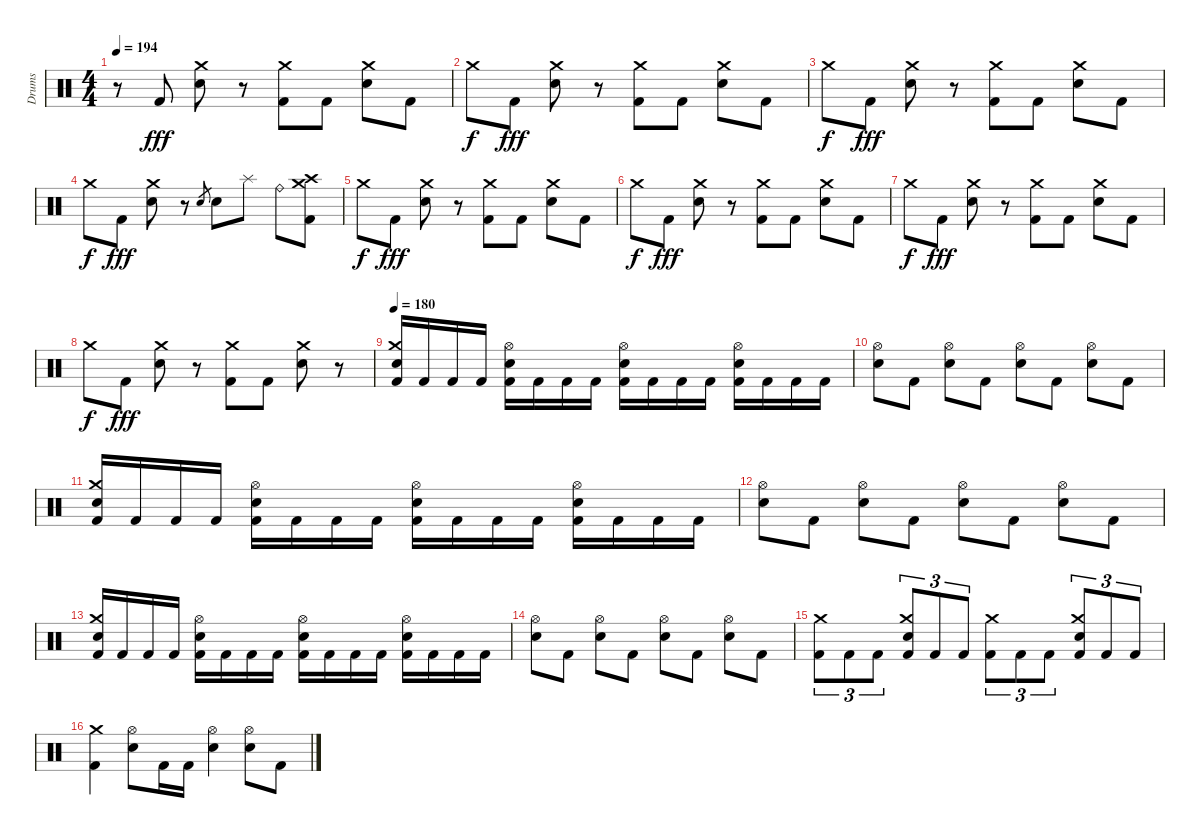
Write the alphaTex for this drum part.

\track ("Drums" "Drums") {instrument percussion}
\staff {score}
\articulation defaults
\ts (4 4)
\tempo 194
\clef neutral
\ks c
r.8{dy fff} "Kick (hit) 2".8 ("Crash medium (hit)" "Electric Snare (hit)").8 r.8 ("Crash medium (hit)" "Kick (hit) 2").8 "Kick (hit) 2".8 ("Crash medium (hit)" "Electric Snare (hit)").8 "Kick (hit) 2".8 |
"Crash medium (hit)".8{dy f} "Kick (hit) 2".8{dy fff} ("Crash medium (hit)" "Electric Snare (hit)").8 r.8 ("Crash medium (hit)" "Kick (hit) 2").8 "Kick (hit) 2".8 ("Crash medium (hit)" "Electric Snare (hit)").8 "Kick (hit) 2".8 |
"Crash medium (hit)".8{dy f} "Kick (hit) 2".8{dy fff} ("Crash medium (hit)" "Electric Snare (hit)").8 r.8 ("Crash medium (hit)" "Kick (hit) 2").8 "Kick (hit) 2".8 ("Crash medium (hit)" "Electric Snare (hit)").8 "Kick (hit) 2".8 |
"Crash medium (hit)".8{dy f} "Kick (hit) 2".8{dy fff} ("Crash medium (hit)" "Electric Snare (hit)").8 r.8 "Electric Snare (hit)".8{gr} "Electric Snare (hit)".8 "Splash (hit)".8 "Ride (bell)".8 ("Crash medium (hit)" "Crash high (hit)" "Kick (hit) 2").8 |
"Crash medium (hit)".8{dy f} "Kick (hit) 2".8{dy fff} ("Crash medium (hit)" "Electric Snare (hit)").8 r.8 ("Crash medium (hit)" "Kick (hit) 2").8 "Kick (hit) 2".8 ("Crash medium (hit)" "Electric Snare (hit)").8 "Kick (hit) 2".8 |
"Crash medium (hit)".8{dy f} "Kick (hit) 2".8{dy fff} ("Crash medium (hit)" "Electric Snare (hit)").8 r.8 ("Crash medium (hit)" "Kick (hit) 2").8 "Kick (hit) 2".8 ("Crash medium (hit)" "Electric Snare (hit)").8 "Kick (hit) 2".8 |
"Crash medium (hit)".8{dy f} "Kick (hit) 2".8{dy fff} ("Crash medium (hit)" "Electric Snare (hit)").8 r.8 ("Crash medium (hit)" "Kick (hit) 2").8 "Kick (hit) 2".8 ("Crash medium (hit)" "Electric Snare (hit)").8 "Kick (hit) 2".8 |
"Crash medium (hit)".8{dy f} "Kick (hit) 2".8{dy fff} ("Crash medium (hit)" "Electric Snare (hit)").8 r.8 ("Crash medium (hit)" "Kick (hit) 2").8 "Kick (hit) 2".8 ("Crash medium (hit)" "Electric Snare (hit)").8 r.8 |
\tempo 180
("Crash medium (hit)" "Electric Snare (hit)" "Kick (hit) 2").16 "Kick (hit) 2".16 "Kick (hit) 2".16 "Kick (hit) 2".16 ("Hi-Hat (open)" "Electric Snare (hit)" "Kick (hit) 2").16 "Kick (hit) 2".16 "Kick (hit) 2".16 "Kick (hit) 2".16 ("Hi-Hat (open)" "Electric Snare (hit)" "Kick (hit) 2").16 "Kick (hit) 2".16 "Kick (hit) 2".16 "Kick (hit) 2".16 ("Hi-Hat (open)" "Electric Snare (hit)" "Kick (hit) 2").16 "Kick (hit) 2".16 "Kick (hit) 2".16 "Kick (hit) 2".16 |
("Hi-Hat (open)" "Electric Snare (hit)").8 "Kick (hit) 2".8 ("Hi-Hat (open)" "Electric Snare (hit)").8 "Kick (hit) 2".8 ("Hi-Hat (open)" "Electric Snare (hit)").8 "Kick (hit) 2".8 ("Hi-Hat (open)" "Electric Snare (hit)").8 "Kick (hit) 2".8 |
("Crash medium (hit)" "Electric Snare (hit)" "Kick (hit) 2").16 "Kick (hit) 2".16 "Kick (hit) 2".16 "Kick (hit) 2".16 ("Hi-Hat (open)" "Electric Snare (hit)" "Kick (hit) 2").16 "Kick (hit) 2".16 "Kick (hit) 2".16 "Kick (hit) 2".16 ("Hi-Hat (open)" "Electric Snare (hit)" "Kick (hit) 2").16 "Kick (hit) 2".16 "Kick (hit) 2".16 "Kick (hit) 2".16 ("Hi-Hat (open)" "Electric Snare (hit)" "Kick (hit) 2").16 "Kick (hit) 2".16 "Kick (hit) 2".16 "Kick (hit) 2".16 |
("Hi-Hat (open)" "Electric Snare (hit)").8 "Kick (hit) 2".8 ("Hi-Hat (open)" "Electric Snare (hit)").8 "Kick (hit) 2".8 ("Hi-Hat (open)" "Electric Snare (hit)").8 "Kick (hit) 2".8 ("Hi-Hat (open)" "Electric Snare (hit)").8 "Kick (hit) 2".8 |
("Crash medium (hit)" "Electric Snare (hit)" "Kick (hit) 2").16 "Kick (hit) 2".16 "Kick (hit) 2".16 "Kick (hit) 2".16 ("Hi-Hat (open)" "Electric Snare (hit)" "Kick (hit) 2").16 "Kick (hit) 2".16 "Kick (hit) 2".16 "Kick (hit) 2".16 ("Hi-Hat (open)" "Electric Snare (hit)" "Kick (hit) 2").16 "Kick (hit) 2".16 "Kick (hit) 2".16 "Kick (hit) 2".16 ("Hi-Hat (open)" "Electric Snare (hit)" "Kick (hit) 2").16 "Kick (hit) 2".16 "Kick (hit) 2".16 "Kick (hit) 2".16 |
("Hi-Hat (open)" "Electric Snare (hit)").8 "Kick (hit) 2".8 ("Hi-Hat (open)" "Electric Snare (hit)").8 "Kick (hit) 2".8 ("Hi-Hat (open)" "Electric Snare (hit)").8 "Kick (hit) 2".8 ("Hi-Hat (open)" "Electric Snare (hit)").8 "Kick (hit) 2".8 |
("Crash medium (hit)" "Kick (hit) 2").8{tu (3 2)} "Kick (hit) 2".8{tu (3 2)} "Kick (hit) 2".8{tu (3 2)} ("Crash medium (hit)" "Electric Snare (hit)" "Kick (hit) 2").8{tu (3 2)} "Kick (hit) 2".8{tu (3 2)} "Kick (hit) 2".8{tu (3 2)} ("Crash medium (hit)" "Kick (hit) 2").8{tu (3 2)} "Kick (hit) 2".8{tu (3 2)} "Kick (hit) 2".8{tu (3 2)} ("Crash medium (hit)" "Electric Snare (hit)" "Kick (hit) 2").8{tu (3 2)} "Kick (hit) 2".8{tu (3 2)} "Kick (hit) 2".8{tu (3 2)} |
("Crash medium (hit)" "Kick (hit) 2").4 ("Hi-Hat (open)" "Electric Snare (hit)").8 "Kick (hit) 2".16 "Kick (hit) 2".16 ("Hi-Hat (open)" "Electric Snare (hit)").4 ("Hi-Hat (open)" "Electric Snare (hit)").8 "Kick (hit) 2".8
